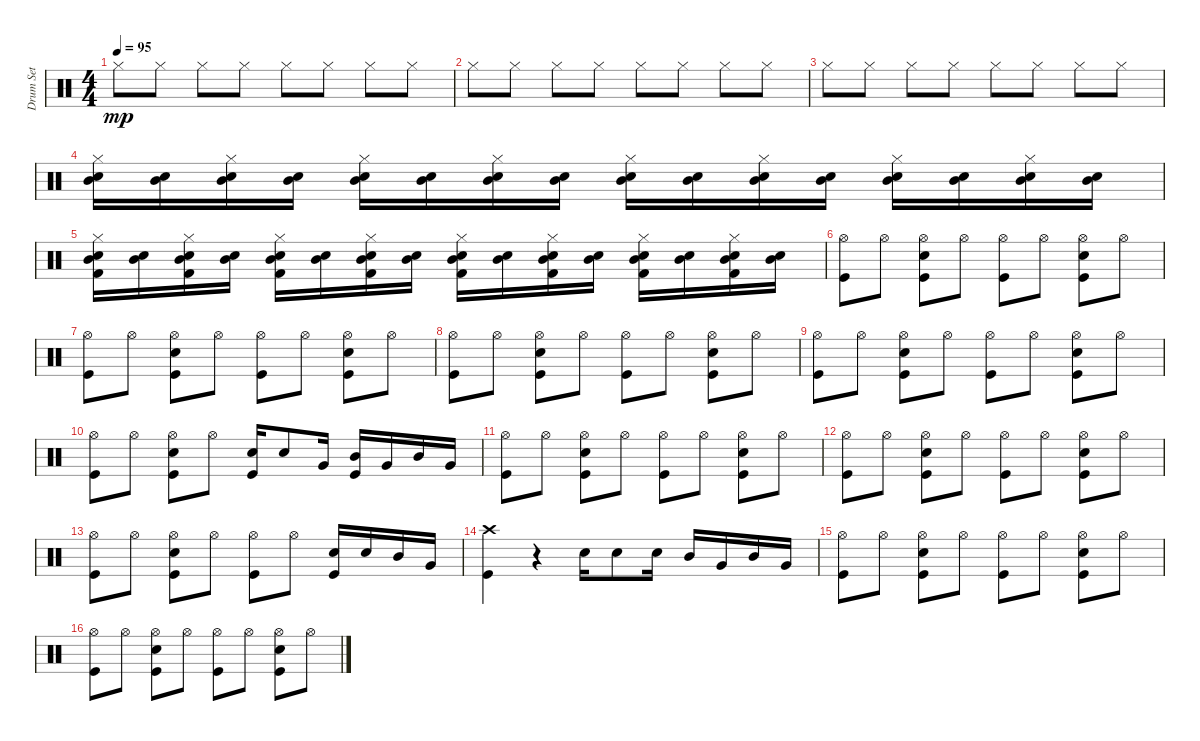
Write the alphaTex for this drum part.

\track ("Drum Set" "Drum Set") {instrument percussion}
\staff {score}
\articulation defaults
\ts (4 4)
\tempo 95
\clef neutral
\ks c "Hi-Hat (closed)".8{dy mp} "Hi-Hat (closed)".8 "Hi-Hat (closed)".8 "Hi-Hat (closed)".8 "Hi-Hat (closed)".8 "Hi-Hat (closed)".8 "Hi-Hat (closed)".8 "Hi-Hat (closed)".8
|
"Hi-Hat (closed)".8 "Hi-Hat (closed)".8 "Hi-Hat (closed)".8 "Hi-Hat (closed)".8 "Hi-Hat (closed)".8 "Hi-Hat (closed)".8 "Hi-Hat (closed)".8 "Hi-Hat (closed)".8 |
"Hi-Hat (closed)".8 "Hi-Hat (closed)".8 "Hi-Hat (closed)".8 "Hi-Hat (closed)".8 "Hi-Hat (closed)".8 "Hi-Hat (closed)".8 "Hi-Hat (closed)".8 "Hi-Hat (closed)".8 |
("Mid Tom (hit)" "Hi-Hat (closed)" "Snare (hit) 2").16 ("Snare (hit) 2" "Mid Tom (hit)").16 ("Hi-Hat (closed)" "Snare (hit) 2" "Mid Tom (hit)").16 ("Snare (hit) 2" "Mid Tom (hit)").16 ("Snare (hit) 2" "Mid Tom (hit)" "Hi-Hat (closed)").16 ("Snare (hit) 2" "Mid Tom (hit)").16 ("Mid Tom (hit)" "Hi-Hat (closed)" "Snare (hit) 2").16 ("Snare (hit) 2" "Mid Tom (hit)").16 ("Mid Tom (hit)" "Snare (hit) 2" "Hi-Hat (closed)").16 ("Mid Tom (hit)" "Snare (hit) 2").16 ("Hi-Hat (closed)" "Snare (hit) 2" "Mid Tom (hit)").16 ("Snare (hit) 2" "Mid Tom (hit)").16 ("Snare (hit) 2" "Hi-Hat (closed)" "Mid Tom (hit)").16 ("Snare (hit) 2" "Mid Tom (hit)").16 ("Hi-Hat (closed)" "Snare (hit) 2" "Mid Tom (hit)").16 ("Snare (hit) 2" "Mid Tom (hit)").16 |
("Kick (hit) 2" "Mid Tom (hit)" "Hi-Hat (closed)" "Snare (hit) 2").16 ("Mid Tom (hit)" "Snare (hit) 2").16 ("Kick (hit) 2" "Hi-Hat (closed)" "Snare (hit) 2" "Mid Tom (hit)").16 ("Mid Tom (hit)" "Snare (hit) 2").16 ("Kick (hit) 2" "Hi-Hat (closed)" "Mid Tom (hit)" "Snare (hit) 2").16 ("Mid Tom (hit)" "Snare (hit) 2").16 ("Kick (hit) 2" "Mid Tom (hit)" "Hi-Hat (closed)" "Snare (hit) 2").16 ("Snare (hit) 2" "Mid Tom (hit)").16 ("Kick (hit) 2" "Snare (hit) 2" "Mid Tom (hit)" "Hi-Hat (closed)").16 ("Mid Tom (hit)" "Snare (hit) 2").16 ("Kick (hit) 2" "Mid Tom (hit)" "Hi-Hat (closed)" "Snare (hit) 2").16 ("Snare (hit) 2" "Mid Tom (hit)").16 ("Kick (hit) 2" "Snare (hit) 2" "Mid Tom (hit)" "Hi-Hat (closed)").16 ("Snare (hit) 2" "Mid Tom (hit)").16 ("Kick (hit) 2" "Mid Tom (hit)" "Hi-Hat (closed)" "Snare (hit) 2").16 ("Snare (hit) 2" "Mid Tom (hit)").16 |
("Kick (hit)" "Hi-Hat (open)").8 "Hi-Hat (open)".8 ("Kick (hit)" "Snare (hit) 2" "Hi-Hat (open)").8 "Hi-Hat (open)".8 ("Kick (hit)" "Hi-Hat (open)").8 "Hi-Hat (open)".8 ("Kick (hit)" "Snare (hit) 2" "Hi-Hat (open)").8 "Hi-Hat (open)".8 |
("Kick (hit)" "Hi-Hat (open)").8 "Hi-Hat (open)".8 ("Kick (hit)" "Snare (hit) 2" "Hi-Hat (open)").8 "Hi-Hat (open)".8 ("Kick (hit)" "Hi-Hat (open)").8 "Hi-Hat (open)".8 ("Kick (hit)" "Snare (hit) 2" "Hi-Hat (open)").8 "Hi-Hat (open)".8 |
("Kick (hit)" "Hi-Hat (open)").8 "Hi-Hat (open)".8 ("Kick (hit)" "Snare (hit) 2" "Hi-Hat (open)").8 "Hi-Hat (open)".8 ("Kick (hit)" "Hi-Hat (open)").8 "Hi-Hat (open)".8 ("Kick (hit)" "Snare (hit) 2" "Hi-Hat (open)").8 "Hi-Hat (open)".8 |
("Kick (hit)" "Hi-Hat (open)").8 "Hi-Hat (open)".8 ("Kick (hit)" "Snare (hit) 2" "Hi-Hat (open)").8 "Hi-Hat (open)".8 ("Kick (hit)" "Hi-Hat (open)").8 "Hi-Hat (open)".8 ("Kick (hit)" "Snare (hit) 2" "Hi-Hat (open)").8 "Hi-Hat (open)".8 |
("Kick (hit)" "Hi-Hat (open)").8 "Hi-Hat (open)".8 ("Kick (hit)" "Snare (hit) 2" "Hi-Hat (open)").8 "Hi-Hat (open)".8 ("Kick (hit)" "Snare (hit) 2").16 "Snare (hit) 2".8 "Very Low Tom (hit)".16 ("Kick (hit)" "Mid Tom (hit)").16 "Very Low Tom (hit)".16 "Mid Tom (hit)".16 "Very Low Tom (hit)".16 |
("Kick (hit)" "Hi-Hat (open)").8 "Hi-Hat (open)".8 ("Kick (hit)" "Snare (hit) 2" "Hi-Hat (open)").8 "Hi-Hat (open)".8 ("Kick (hit)" "Hi-Hat (open)").8 "Hi-Hat (open)".8 ("Kick (hit)" "Snare (hit) 2" "Hi-Hat (open)").8 "Hi-Hat (open)".8 |
("Kick (hit)" "Hi-Hat (open)").8 "Hi-Hat (open)".8 ("Kick (hit)" "Snare (hit) 2" "Hi-Hat (open)").8 "Hi-Hat (open)".8 ("Kick (hit)" "Hi-Hat (open)").8 "Hi-Hat (open)".8 ("Kick (hit)" "Snare (hit) 2" "Hi-Hat (open)").8 "Hi-Hat (open)".8 |
("Kick (hit)" "Hi-Hat (open)").8 "Hi-Hat (open)".8 ("Kick (hit)" "Snare (hit) 2" "Hi-Hat (open)").8 "Hi-Hat (open)".8 ("Kick (hit)" "Hi-Hat (open)").8 "Hi-Hat (open)".8 ("Kick (hit)" "Snare (hit) 2").16 "Snare (hit) 2".16 "Mid Tom (hit)".16 "Very Low Tom (hit)".16 |
("Kick (hit)" "Crash high (hit)").4 r.4 "Snare (hit) 2".16 "Snare (hit) 2".8 "Snare (hit) 2".16 "Mid Tom (hit)".16 "Very Low Tom (hit)".16 "Mid Tom (hit)".16 "Very Low Tom (hit)".16 |
("Kick (hit)" "Hi-Hat (open)").8 "Hi-Hat (open)".8 ("Kick (hit)" "Snare (hit) 2" "Hi-Hat (open)").8 "Hi-Hat (open)".8 ("Kick (hit)" "Hi-Hat (open)").8 "Hi-Hat (open)".8 ("Kick (hit)" "Snare (hit) 2" "Hi-Hat (open)").8 "Hi-Hat (open)".8 |
("Kick (hit)" "Hi-Hat (open)").8 "Hi-Hat (open)".8 ("Kick (hit)" "Snare (hit) 2" "Hi-Hat (open)").8 "Hi-Hat (open)".8 ("Kick (hit)" "Hi-Hat (open)").8 "Hi-Hat (open)".8 ("Kick (hit)" "Snare (hit) 2" "Hi-Hat (open)").8 "Hi-Hat (open)".8
